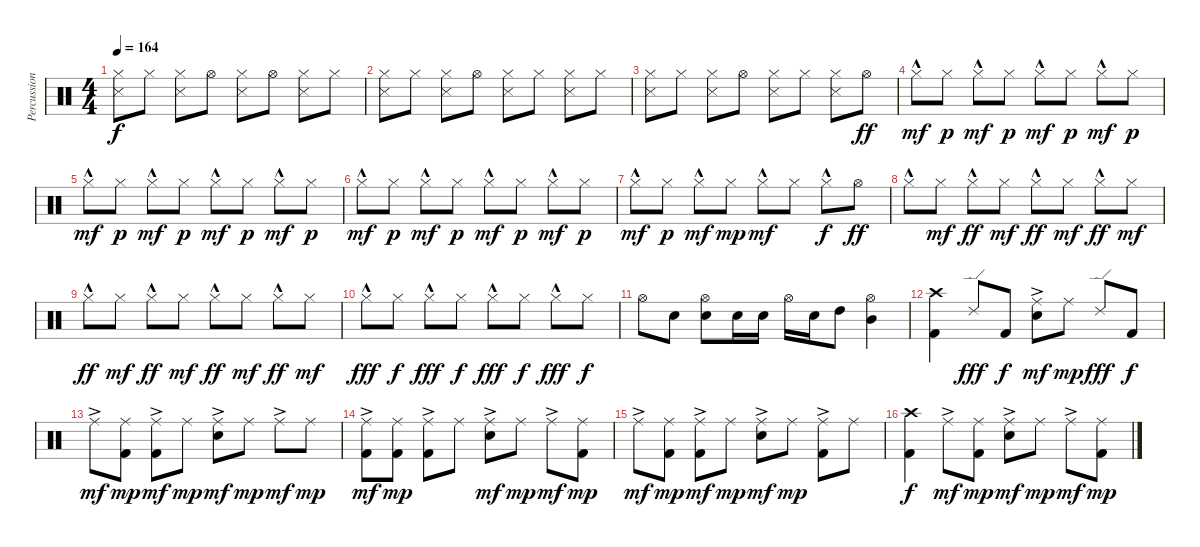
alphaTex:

\track ("Percussion" "Percussion") {instrument percussion}
\staff {score}
\articulation defaults
\ts (4 4)
\tempo 164
\clef neutral
\ks c
("Snare (side stick) 3" "Hi-Hat (closed)").8{dy f} "Hi-Hat (closed)".8 ("Snare (side stick) 3" "Hi-Hat (closed)").8 "Hi-Hat (open)".8 ("Snare (side stick) 3" "Hi-Hat (closed)").8 "Hi-Hat (open)".8 ("Snare (side stick) 3" "Hi-Hat (closed)").8 "Hi-Hat (closed)".8 |
("Snare (side stick) 3" "Hi-Hat (closed)").8 "Hi-Hat (closed)".8 ("Snare (side stick) 3" "Hi-Hat (closed)").8 "Hi-Hat (open)".8 ("Snare (side stick) 3" "Hi-Hat (closed)").8 "Hi-Hat (closed)".8 ("Snare (side stick) 3" "Hi-Hat (closed)").8 "Hi-Hat (closed)".8 |
("Snare (side stick) 3" "Hi-Hat (closed)").8 "Hi-Hat (closed)".8 ("Snare (side stick) 3" "Hi-Hat (closed)").8 "Hi-Hat (open)".8 ("Snare (side stick) 3" "Hi-Hat (closed)").8 "Hi-Hat (closed)".8 ("Snare (side stick) 3" "Hi-Hat (closed)").8 "Hi-Hat (open)".8{dy ff} |
"Hi-Hat (closed)"{hac}.8{dy mf} "Hi-Hat (closed)".8{dy p} "Hi-Hat (closed)"{hac}.8{dy mf} "Hi-Hat (closed)".8{dy p} "Hi-Hat (closed)"{hac}.8{dy mf} "Hi-Hat (closed)".8{dy p} "Hi-Hat (closed)"{hac}.8{dy mf} "Hi-Hat (closed)".8{dy p} |
"Hi-Hat (closed)"{hac}.8{dy mf} "Hi-Hat (closed)".8{dy p} "Hi-Hat (closed)"{hac}.8{dy mf} "Hi-Hat (closed)".8{dy p} "Hi-Hat (closed)"{hac}.8{dy mf} "Hi-Hat (closed)".8{dy p} "Hi-Hat (closed)"{hac}.8{dy mf} "Hi-Hat (closed)".8{dy p} |
"Hi-Hat (closed)"{hac}.8{dy mf} "Hi-Hat (closed)".8{dy p} "Hi-Hat (closed)"{hac}.8{dy mf} "Hi-Hat (closed)".8{dy p} "Hi-Hat (closed)"{hac}.8{dy mf} "Hi-Hat (closed)".8{dy p} "Hi-Hat (closed)"{hac}.8{dy mf} "Hi-Hat (closed)".8{dy p} |
"Hi-Hat (closed)"{hac}.8{dy mf} "Hi-Hat (closed)".8{dy p} "Hi-Hat (closed)"{hac}.8{dy mf} "Hi-Hat (closed)".8{dy mp} "Hi-Hat (closed)"{hac}.8{dy mf} "Hi-Hat (closed)".8 "Hi-Hat (closed)"{hac}.8{dy f} "Hi-Hat (open)".8{dy ff} |
"Hi-Hat (closed)"{hac}.8 "Hi-Hat (closed)".8{dy mf} "Hi-Hat (closed)"{hac}.8{dy ff} "Hi-Hat (closed)".8{dy mf} "Hi-Hat (closed)"{hac}.8{dy ff} "Hi-Hat (closed)".8{dy mf} "Hi-Hat (closed)"{hac}.8{dy ff} "Hi-Hat (closed)".8{dy mf} |
"Hi-Hat (closed)"{hac}.8{dy ff} "Hi-Hat (closed)".8{dy mf} "Hi-Hat (closed)"{hac}.8{dy ff} "Hi-Hat (closed)".8{dy mf} "Hi-Hat (closed)"{hac}.8{dy ff} "Hi-Hat (closed)".8{dy mf} "Hi-Hat (closed)"{hac}.8{dy ff} "Hi-Hat (closed)".8{dy mf} |
"Hi-Hat (closed)"{hac}.8{dy fff} "Hi-Hat (closed)".8{dy f} "Hi-Hat (closed)"{hac}.8{dy fff} "Hi-Hat (closed)".8{dy f} "Hi-Hat (closed)"{hac}.8{dy fff} "Hi-Hat (closed)".8{dy f} "Hi-Hat (closed)"{hac}.8{dy fff} "Hi-Hat (closed)".8{dy f} |
"Hi-Hat (open)".8 "Electric Snare (hit)".8 ("Electric Snare (hit)" "Hi-Hat (open)").8 "Electric Snare (hit)".16 "Electric Snare (hit)".16 "Hi-Hat (open)".16 "Electric Snare (hit)".16 "High Tom (hit)".8 ("Mid Tom (hit)" "Hi-Hat (open)").4 |
("Crash high (hit)" "Kick (hit) 2").4 "Ride (edge) 2".8{dy fff} "Kick (hit) 2".8{dy f} ("Ride (middle)"{ac} "Electric Snare (hit)").8{dy mf} "Ride (middle)".8{dy mp} "Ride (edge) 2".8{dy fff} "Kick (hit) 2".8{dy f} |
"Ride (middle)"{ac}.8{dy mf} ("Ride (middle)" "Kick (hit) 2").8{dy mp} ("Ride (middle)"{ac} "Kick (hit) 2").8{dy mf} "Ride (middle)".8{dy mp} ("Ride (middle)"{ac} "Electric Snare (hit)").8{dy mf} "Ride (middle)".8{dy mp} "Ride (middle)"{ac}.8{dy mf} "Ride (middle)".8{dy mp} |
("Ride (middle)"{ac} "Kick (hit) 2").8{dy mf} ("Ride (middle)" "Kick (hit) 2").8{dy mp} ("Ride (middle)"{ac} "Kick (hit) 2").8 "Ride (middle)".8 ("Ride (middle)"{ac} "Electric Snare (hit)").8{dy mf} "Ride (middle)".8{dy mp} "Ride (middle)"{ac}.8{dy mf} ("Ride (middle)" "Kick (hit) 2").8{dy mp} |
"Ride (middle)"{ac}.8{dy mf} ("Ride (middle)" "Kick (hit) 2").8{dy mp} ("Ride (middle)"{ac} "Kick (hit) 2").8{dy mf} "Ride (middle)".8{dy mp} ("Ride (middle)"{ac} "Electric Snare (hit)").8{dy mf} "Ride (middle)".8{dy mp} ("Ride (middle)"{ac} "Kick (hit) 2").8 "Ride (middle)".8 |
("Crash high (hit)" "Kick (hit) 2").4{dy f} "Ride (middle)"{ac}.8{dy mf} ("Ride (middle)" "Kick (hit) 2").8{dy mp} ("Ride (middle)"{ac} "Electric Snare (hit)").8{dy mf} "Ride (middle)".8{dy mp} "Ride (middle)"{ac}.8{dy mf} ("Ride (middle)" "Kick (hit) 2").8{dy mp}
